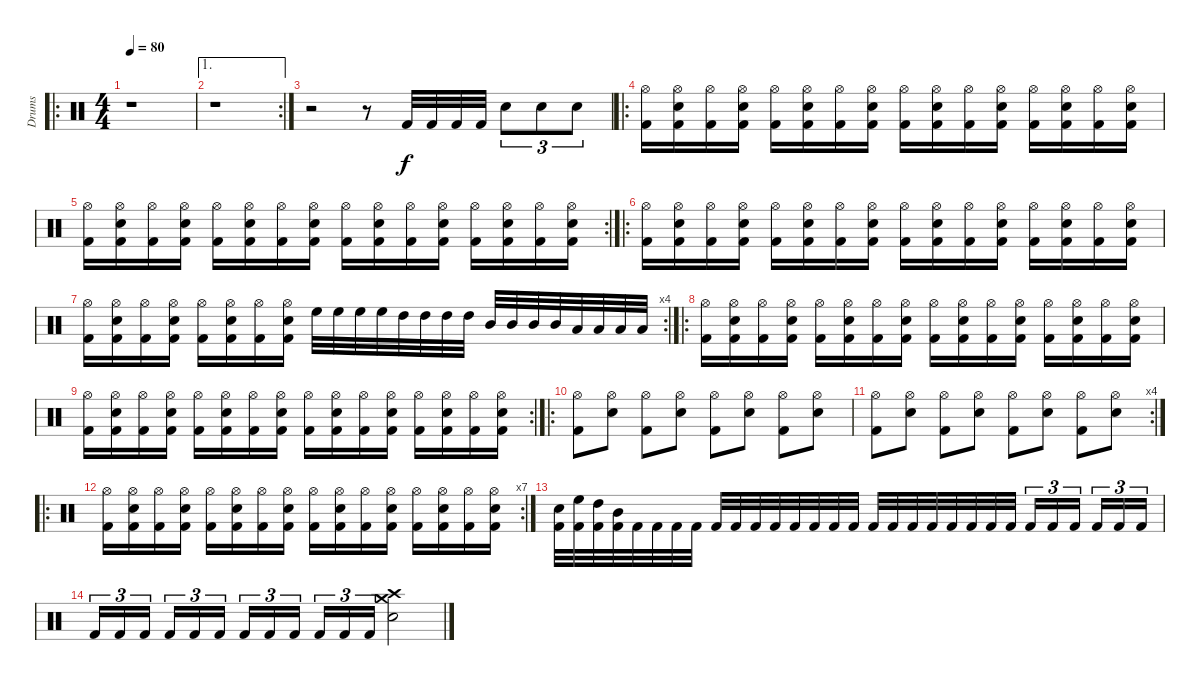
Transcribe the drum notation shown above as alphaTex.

\track ("Drums" "Drums") {instrument percussion}
\staff {score}
\articulation defaults
\ro
\ts (4 4)
\tempo 80
\clef neutral
\ks c
r.1{dy f} |
\ae 1
\rc 2
r.1 |
r.2 r.8 "Kick (hit) 2".32 "Kick (hit) 2".32 "Kick (hit) 2".32 "Kick (hit) 2".32 "Snare (hit) 2".8{tu (3 2)} "Snare (hit) 2".8{tu (3 2)} "Snare (hit) 2".8{tu (3 2)} |
\ro
("Hi-Hat (open)" "Kick (hit) 2").16 ("Snare (hit) 2" "Hi-Hat (open)" "Kick (hit) 2").16 ("Hi-Hat (open)" "Kick (hit) 2").16 ("Snare (hit) 2" "Hi-Hat (open)" "Kick (hit) 2").16 ("Hi-Hat (open)" "Kick (hit) 2").16 ("Snare (hit) 2" "Hi-Hat (open)" "Kick (hit) 2").16 ("Hi-Hat (open)" "Kick (hit) 2").16 ("Snare (hit) 2" "Hi-Hat (open)" "Kick (hit) 2").16 ("Hi-Hat (open)" "Kick (hit) 2").16 ("Snare (hit) 2" "Hi-Hat (open)" "Kick (hit) 2").16 ("Hi-Hat (open)" "Kick (hit) 2").16 ("Snare (hit) 2" "Hi-Hat (open)" "Kick (hit) 2").16 ("Hi-Hat (open)" "Kick (hit) 2").16 ("Snare (hit) 2" "Hi-Hat (open)" "Kick (hit) 2").16 ("Hi-Hat (open)" "Kick (hit) 2").16 ("Snare (hit) 2" "Hi-Hat (open)" "Kick (hit) 2").16 |
\rc 2
("Hi-Hat (open)" "Kick (hit) 2").16 ("Snare (hit) 2" "Hi-Hat (open)" "Kick (hit) 2").16 ("Hi-Hat (open)" "Kick (hit) 2").16 ("Snare (hit) 2" "Hi-Hat (open)" "Kick (hit) 2").16 ("Hi-Hat (open)" "Kick (hit) 2").16 ("Snare (hit) 2" "Hi-Hat (open)" "Kick (hit) 2").16 ("Hi-Hat (open)" "Kick (hit) 2").16 ("Snare (hit) 2" "Hi-Hat (open)" "Kick (hit) 2").16 ("Hi-Hat (open)" "Kick (hit) 2").16 ("Snare (hit) 2" "Hi-Hat (open)" "Kick (hit) 2").16 ("Hi-Hat (open)" "Kick (hit) 2").16 ("Snare (hit) 2" "Hi-Hat (open)" "Kick (hit) 2").16 ("Hi-Hat (open)" "Kick (hit) 2").16 ("Snare (hit) 2" "Hi-Hat (open)" "Kick (hit) 2").16 ("Hi-Hat (open)" "Kick (hit) 2").16 ("Snare (hit) 2" "Hi-Hat (open)" "Kick (hit) 2").16 |
\ro
("Hi-Hat (open)" "Kick (hit) 2").16 ("Snare (hit) 2" "Hi-Hat (open)" "Kick (hit) 2").16 ("Hi-Hat (open)" "Kick (hit) 2").16 ("Snare (hit) 2" "Hi-Hat (open)" "Kick (hit) 2").16 ("Hi-Hat (open)" "Kick (hit) 2").16 ("Snare (hit) 2" "Hi-Hat (open)" "Kick (hit) 2").16 ("Hi-Hat (open)" "Kick (hit) 2").16 ("Snare (hit) 2" "Hi-Hat (open)" "Kick (hit) 2").16 ("Hi-Hat (open)" "Kick (hit) 2").16 ("Snare (hit) 2" "Hi-Hat (open)" "Kick (hit) 2").16 ("Hi-Hat (open)" "Kick (hit) 2").16 ("Snare (hit) 2" "Hi-Hat (open)" "Kick (hit) 2").16 ("Hi-Hat (open)" "Kick (hit) 2").16 ("Snare (hit) 2" "Hi-Hat (open)" "Kick (hit) 2").16 ("Hi-Hat (open)" "Kick (hit) 2").16 ("Snare (hit) 2" "Hi-Hat (open)" "Kick (hit) 2").16 |
\rc 4
("Hi-Hat (open)" "Kick (hit) 2").16 ("Snare (hit) 2" "Hi-Hat (open)" "Kick (hit) 2").16 ("Hi-Hat (open)" "Kick (hit) 2").16 ("Snare (hit) 2" "Hi-Hat (open)" "Kick (hit) 2").16 ("Hi-Hat (open)" "Kick (hit) 2").16 ("Snare (hit) 2" "Hi-Hat (open)" "Kick (hit) 2").16 ("Hi-Hat (open)" "Kick (hit) 2").16 ("Snare (hit) 2" "Hi-Hat (open)" "Kick (hit) 2").16 "High Floor Tom (hit)".32 "High Floor Tom (hit)".32 "High Floor Tom (hit)".32 "High Floor Tom (hit)".32 "High Tom (hit)".32 "High Tom (hit)".32 "High Tom (hit)".32 "High Tom (hit)".32 "Mid Tom (hit)".32 "Mid Tom (hit)".32 "Mid Tom (hit)".32 "Mid Tom (hit)".32 "Low Tom (hit)".32 "Low Tom (hit)".32 "Low Tom (hit)".32 "Low Tom (hit)".32 |
\ro
("Hi-Hat (open)" "Kick (hit) 2").16 ("Snare (hit) 2" "Hi-Hat (open)" "Kick (hit) 2").16 ("Hi-Hat (open)" "Kick (hit) 2").16 ("Snare (hit) 2" "Hi-Hat (open)" "Kick (hit) 2").16 ("Hi-Hat (open)" "Kick (hit) 2").16 ("Snare (hit) 2" "Hi-Hat (open)" "Kick (hit) 2").16 ("Hi-Hat (open)" "Kick (hit) 2").16 ("Snare (hit) 2" "Hi-Hat (open)" "Kick (hit) 2").16 ("Hi-Hat (open)" "Kick (hit) 2").16 ("Snare (hit) 2" "Hi-Hat (open)" "Kick (hit) 2").16 ("Hi-Hat (open)" "Kick (hit) 2").16 ("Snare (hit) 2" "Hi-Hat (open)" "Kick (hit) 2").16 ("Hi-Hat (open)" "Kick (hit) 2").16 ("Snare (hit) 2" "Hi-Hat (open)" "Kick (hit) 2").16 ("Hi-Hat (open)" "Kick (hit) 2").16 ("Snare (hit) 2" "Hi-Hat (open)" "Kick (hit) 2").16 |
\rc 2
("Hi-Hat (open)" "Kick (hit) 2").16 ("Snare (hit) 2" "Hi-Hat (open)" "Kick (hit) 2").16 ("Hi-Hat (open)" "Kick (hit) 2").16 ("Snare (hit) 2" "Hi-Hat (open)" "Kick (hit) 2").16 ("Hi-Hat (open)" "Kick (hit) 2").16 ("Snare (hit) 2" "Hi-Hat (open)" "Kick (hit) 2").16 ("Hi-Hat (open)" "Kick (hit) 2").16 ("Snare (hit) 2" "Hi-Hat (open)" "Kick (hit) 2").16 ("Hi-Hat (open)" "Kick (hit) 2").16 ("Snare (hit) 2" "Hi-Hat (open)" "Kick (hit) 2").16 ("Hi-Hat (open)" "Kick (hit) 2").16 ("Snare (hit) 2" "Hi-Hat (open)" "Kick (hit) 2").16 ("Hi-Hat (open)" "Kick (hit) 2").16 ("Snare (hit) 2" "Hi-Hat (open)" "Kick (hit) 2").16 ("Hi-Hat (open)" "Kick (hit) 2").16 ("Snare (hit) 2" "Hi-Hat (open)" "Kick (hit) 2").16 |
\ro
("Hi-Hat (open)" "Kick (hit) 2").8 ("Snare (hit) 2" "Hi-Hat (open)").8 ("Hi-Hat (open)" "Kick (hit) 2").8 ("Snare (hit) 2" "Hi-Hat (open)").8 ("Hi-Hat (open)" "Kick (hit) 2").8 ("Snare (hit) 2" "Hi-Hat (open)").8 ("Hi-Hat (open)" "Kick (hit) 2").8 ("Snare (hit) 2" "Hi-Hat (open)").8 |
\rc 4
("Hi-Hat (open)" "Kick (hit) 2").8 ("Snare (hit) 2" "Hi-Hat (open)").8 ("Hi-Hat (open)" "Kick (hit) 2").8 ("Snare (hit) 2" "Hi-Hat (open)").8 ("Hi-Hat (open)" "Kick (hit) 2").8 ("Snare (hit) 2" "Hi-Hat (open)").8 ("Hi-Hat (open)" "Kick (hit) 2").8 ("Snare (hit) 2" "Hi-Hat (open)").8 |
\ro
\rc 7
("Hi-Hat (open)" "Kick (hit) 2").16 ("Snare (hit) 2" "Hi-Hat (open)" "Kick (hit) 2").16 ("Hi-Hat (open)" "Kick (hit) 2").16 ("Snare (hit) 2" "Hi-Hat (open)" "Kick (hit) 2").16 ("Hi-Hat (open)" "Kick (hit) 2").16 ("Snare (hit) 2" "Hi-Hat (open)" "Kick (hit) 2").16 ("Hi-Hat (open)" "Kick (hit) 2").16 ("Snare (hit) 2" "Hi-Hat (open)" "Kick (hit) 2").16 ("Hi-Hat (open)" "Kick (hit) 2").16 ("Snare (hit) 2" "Hi-Hat (open)" "Kick (hit) 2").16 ("Hi-Hat (open)" "Kick (hit) 2").16 ("Snare (hit) 2" "Hi-Hat (open)" "Kick (hit) 2").16 ("Hi-Hat (open)" "Kick (hit) 2").16 ("Snare (hit) 2" "Hi-Hat (open)" "Kick (hit) 2").16 ("Hi-Hat (open)" "Kick (hit) 2").16 ("Snare (hit) 2" "Hi-Hat (open)" "Kick (hit) 2").16 |
("Snare (hit) 2" "Kick (hit) 2").32 ("High Floor Tom (hit)" "Kick (hit) 2").32 ("High Tom (hit)" "Kick (hit) 2").32 ("Mid Tom (hit)" "Kick (hit) 2").32 "Kick (hit) 2".32 "Kick (hit) 2".32 "Kick (hit) 2".32 "Kick (hit) 2".32 "Kick (hit) 2".32 "Kick (hit) 2".32 "Kick (hit) 2".32 "Kick (hit) 2".32 "Kick (hit) 2".32 "Kick (hit) 2".32 "Kick (hit) 2".32 "Kick (hit) 2".32 "Kick (hit) 2".32 "Kick (hit) 2".32 "Kick (hit) 2".32 "Kick (hit) 2".32 "Kick (hit) 2".32 "Kick (hit) 2".32 "Kick (hit) 2".32 "Kick (hit) 2".32 "Kick (hit) 2".16{tu (3 2)} "Kick (hit) 2".16{tu (3 2)} "Kick (hit) 2".16{tu (3 2)} "Kick (hit) 2".16{tu (3 2)} "Kick (hit) 2".16{tu (3 2)} "Kick (hit) 2".16{tu (3 2)} |
"Kick (hit) 2".16{tu (3 2)} "Kick (hit) 2".16{tu (3 2)} "Kick (hit) 2".16{tu (3 2)} "Kick (hit) 2".16{tu (3 2)} "Kick (hit) 2".16{tu (3 2)} "Kick (hit) 2".16{tu (3 2)} "Kick (hit) 2".16{tu (3 2)} "Kick (hit) 2".16{tu (3 2)} "Kick (hit) 2".16{tu (3 2)} "Kick (hit) 2".16{tu (3 2)} "Kick (hit) 2".16{tu (3 2)} "Kick (hit) 2".16{tu (3 2)} ("Crash high (hit)" "Crash medium (hit)" "Snare (hit) 2").2
